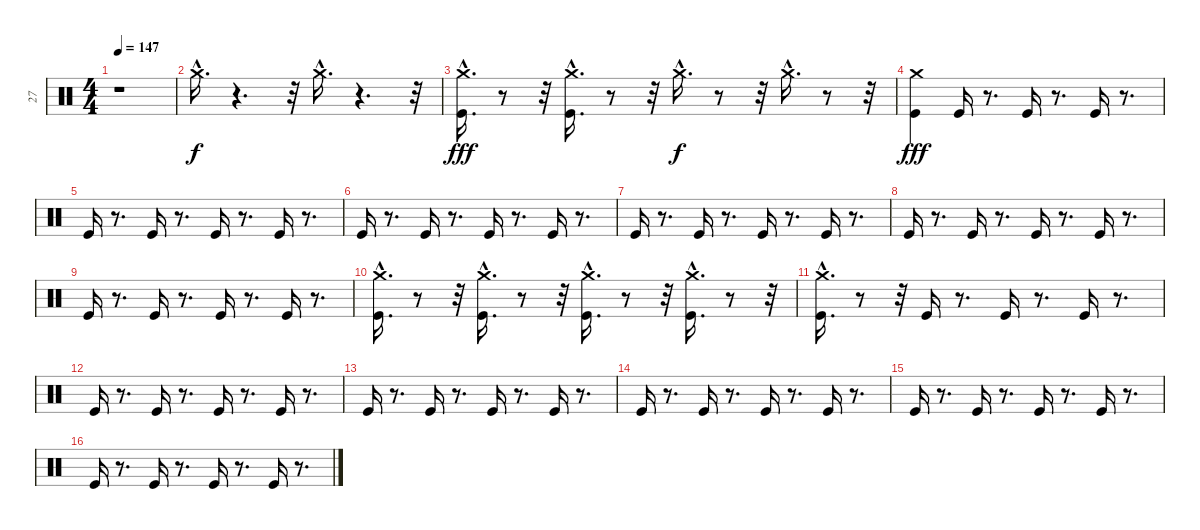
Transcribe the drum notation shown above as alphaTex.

\track ("27" "27") {instrument percussion}
\staff {score}
\articulation defaults
\ts (4 4)
\tempo 147
\clef neutral
\ks c
r.1{dy f} |
"Crash medium (hit)"{hac}.16{d} r.4{d} r.32 "Crash medium (hit)"{hac}.16{d} r.4{d} r.32 |
("Crash medium (hit)"{hac} "Kick (hit)").16{d dy fff} r.8 r.32 ("Crash medium (hit)"{hac} "Kick (hit)").16{d} r.8 r.32 "Crash medium (hit)"{hac}.16{d dy f} r.8 r.32 "Crash medium (hit)"{hac}.16{d} r.8 r.32 |
("Crash medium (hit)" "Kick (hit)").4{dy fff} "Kick (hit)".16 r.8{d} "Kick (hit)".16 r.8{d} "Kick (hit)".16 r.8{d} |
"Kick (hit)".16 r.8{d} "Kick (hit)".16 r.8{d} "Kick (hit)".16 r.8{d} "Kick (hit)".16 r.8{d} |
"Kick (hit)".16 r.8{d} "Kick (hit)".16 r.8{d} "Kick (hit)".16 r.8{d} "Kick (hit)".16 r.8{d} |
"Kick (hit)".16 r.8{d} "Kick (hit)".16 r.8{d} "Kick (hit)".16 r.8{d} "Kick (hit)".16 r.8{d} |
"Kick (hit)".16 r.8{d} "Kick (hit)".16 r.8{d} "Kick (hit)".16 r.8{d} "Kick (hit)".16 r.8{d} |
"Kick (hit)".16 r.8{d} "Kick (hit)".16 r.8{d} "Kick (hit)".16 r.8{d} "Kick (hit)".16 r.8{d} |
("Crash medium (hit)"{hac} "Kick (hit)").16{d} r.8 r.32 ("Crash medium (hit)"{hac} "Kick (hit)").16{d} r.8 r.32 ("Crash medium (hit)"{hac} "Kick (hit)").16{d} r.8 r.32 ("Crash medium (hit)"{hac} "Kick (hit)").16{d} r.8 r.32 |
("Crash medium (hit)"{hac} "Kick (hit)").16{d} r.8 r.32 "Kick (hit)".16 r.8{d} "Kick (hit)".16 r.8{d} "Kick (hit)".16 r.8{d} |
"Kick (hit)".16 r.8{d} "Kick (hit)".16 r.8{d} "Kick (hit)".16 r.8{d} "Kick (hit)".16 r.8{d} |
"Kick (hit)".16 r.8{d} "Kick (hit)".16 r.8{d} "Kick (hit)".16 r.8{d} "Kick (hit)".16 r.8{d} |
"Kick (hit)".16 r.8{d} "Kick (hit)".16 r.8{d} "Kick (hit)".16 r.8{d} "Kick (hit)".16 r.8{d} |
"Kick (hit)".16 r.8{d} "Kick (hit)".16 r.8{d} "Kick (hit)".16 r.8{d} "Kick (hit)".16 r.8{d} |
"Kick (hit)".16 r.8{d} "Kick (hit)".16 r.8{d} "Kick (hit)".16 r.8{d} "Kick (hit)".16 r.8{d}
